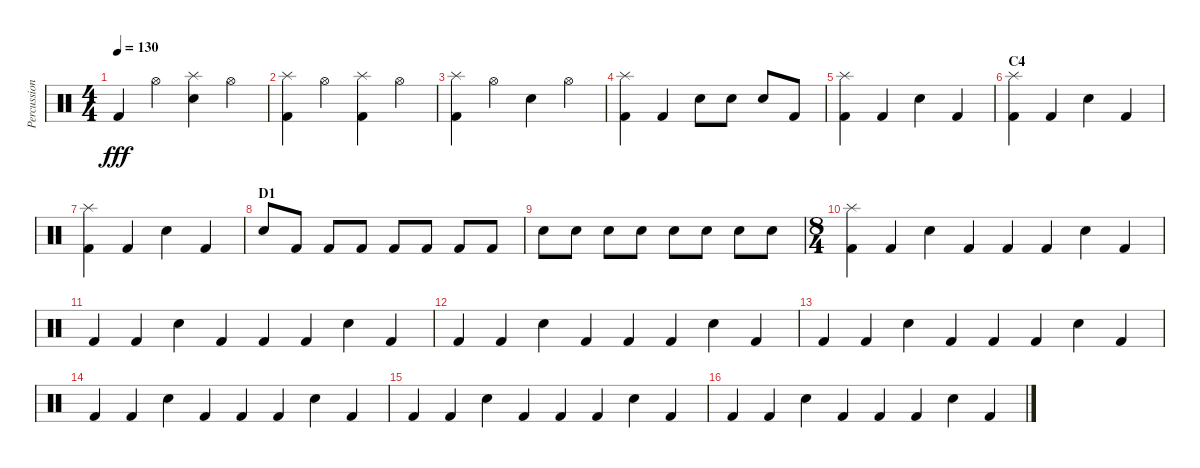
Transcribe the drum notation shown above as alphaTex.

\track ("Percussion" "Percussion") {instrument percussion}
\staff {score}
\articulation defaults
\ts (4 4)
\tempo 130
\clef neutral
\ks c "Kick (hit) 2".4{dy fff} "Hi-Hat (open)".4
("Splash (hit)" "Electric Snare (hit)").4 "Hi-Hat (open)".4 |
("Kick (hit) 2" "Splash (hit)").4 "Hi-Hat (open)".4 ("Kick (hit) 2" "Splash (hit)").4 "Hi-Hat (open)".4 |
("Kick (hit) 2" "Splash (hit)").4 "Hi-Hat (open)".4 "Electric Snare (hit)".4 "Hi-Hat (open)".4 |
("Kick (hit) 2" "Splash (hit)").4 "Kick (hit) 2".4 "Electric Snare (hit)".8 "Electric Snare (hit)".8 "Electric Snare (hit)".8 "Kick (hit) 2".8 |
("Kick (hit) 2" "Splash (hit)").4 "Kick (hit) 2".4 "Electric Snare (hit)".4 "Kick (hit) 2".4 |
\section ("" "C4")
("Kick (hit) 2" "Splash (hit)").4 "Kick (hit) 2".4 "Electric Snare (hit)".4 "Kick (hit) 2".4 |
("Kick (hit) 2" "Splash (hit)").4 "Kick (hit) 2".4 "Electric Snare (hit)".4 "Kick (hit) 2".4 |
\section ("" "D1")
"Electric Snare (hit)".8 "Kick (hit) 2".8 "Kick (hit) 2".8 "Kick (hit) 2".8 "Kick (hit) 2".8 "Kick (hit) 2".8 "Kick (hit) 2".8 "Kick (hit) 2".8 |
"Electric Snare (hit)".8 "Electric Snare (hit)".8 "Electric Snare (hit)".8 "Electric Snare (hit)".8 "Electric Snare (hit)".8 "Electric Snare (hit)".8 "Electric Snare (hit)".8 "Electric Snare (hit)".8 |
\ts (8 4)
("Kick (hit) 2" "Splash (hit)").4 "Kick (hit) 2".4 "Electric Snare (hit)".4 "Kick (hit) 2".4 "Kick (hit) 2".4 "Kick (hit) 2".4 "Electric Snare (hit)".4 "Kick (hit) 2".4 |
"Kick (hit) 2".4 "Kick (hit) 2".4 "Electric Snare (hit)".4 "Kick (hit) 2".4 "Kick (hit) 2".4 "Kick (hit) 2".4 "Electric Snare (hit)".4 "Kick (hit) 2".4 |
"Kick (hit) 2".4 "Kick (hit) 2".4 "Electric Snare (hit)".4 "Kick (hit) 2".4 "Kick (hit) 2".4 "Kick (hit) 2".4 "Electric Snare (hit)".4 "Kick (hit) 2".4 |
"Kick (hit) 2".4 "Kick (hit) 2".4 "Electric Snare (hit)".4 "Kick (hit) 2".4 "Kick (hit) 2".4 "Kick (hit) 2".4 "Electric Snare (hit)".4 "Kick (hit) 2".4 |
"Kick (hit) 2".4 "Kick (hit) 2".4 "Electric Snare (hit)".4 "Kick (hit) 2".4 "Kick (hit) 2".4 "Kick (hit) 2".4 "Electric Snare (hit)".4 "Kick (hit) 2".4 |
"Kick (hit) 2".4 "Kick (hit) 2".4 "Electric Snare (hit)".4 "Kick (hit) 2".4 "Kick (hit) 2".4 "Kick (hit) 2".4 "Electric Snare (hit)".4 "Kick (hit) 2".4 |
"Kick (hit) 2".4 "Kick (hit) 2".4 "Electric Snare (hit)".4 "Kick (hit) 2".4 "Kick (hit) 2".4 "Kick (hit) 2".4 "Electric Snare (hit)".4 "Kick (hit) 2".4
